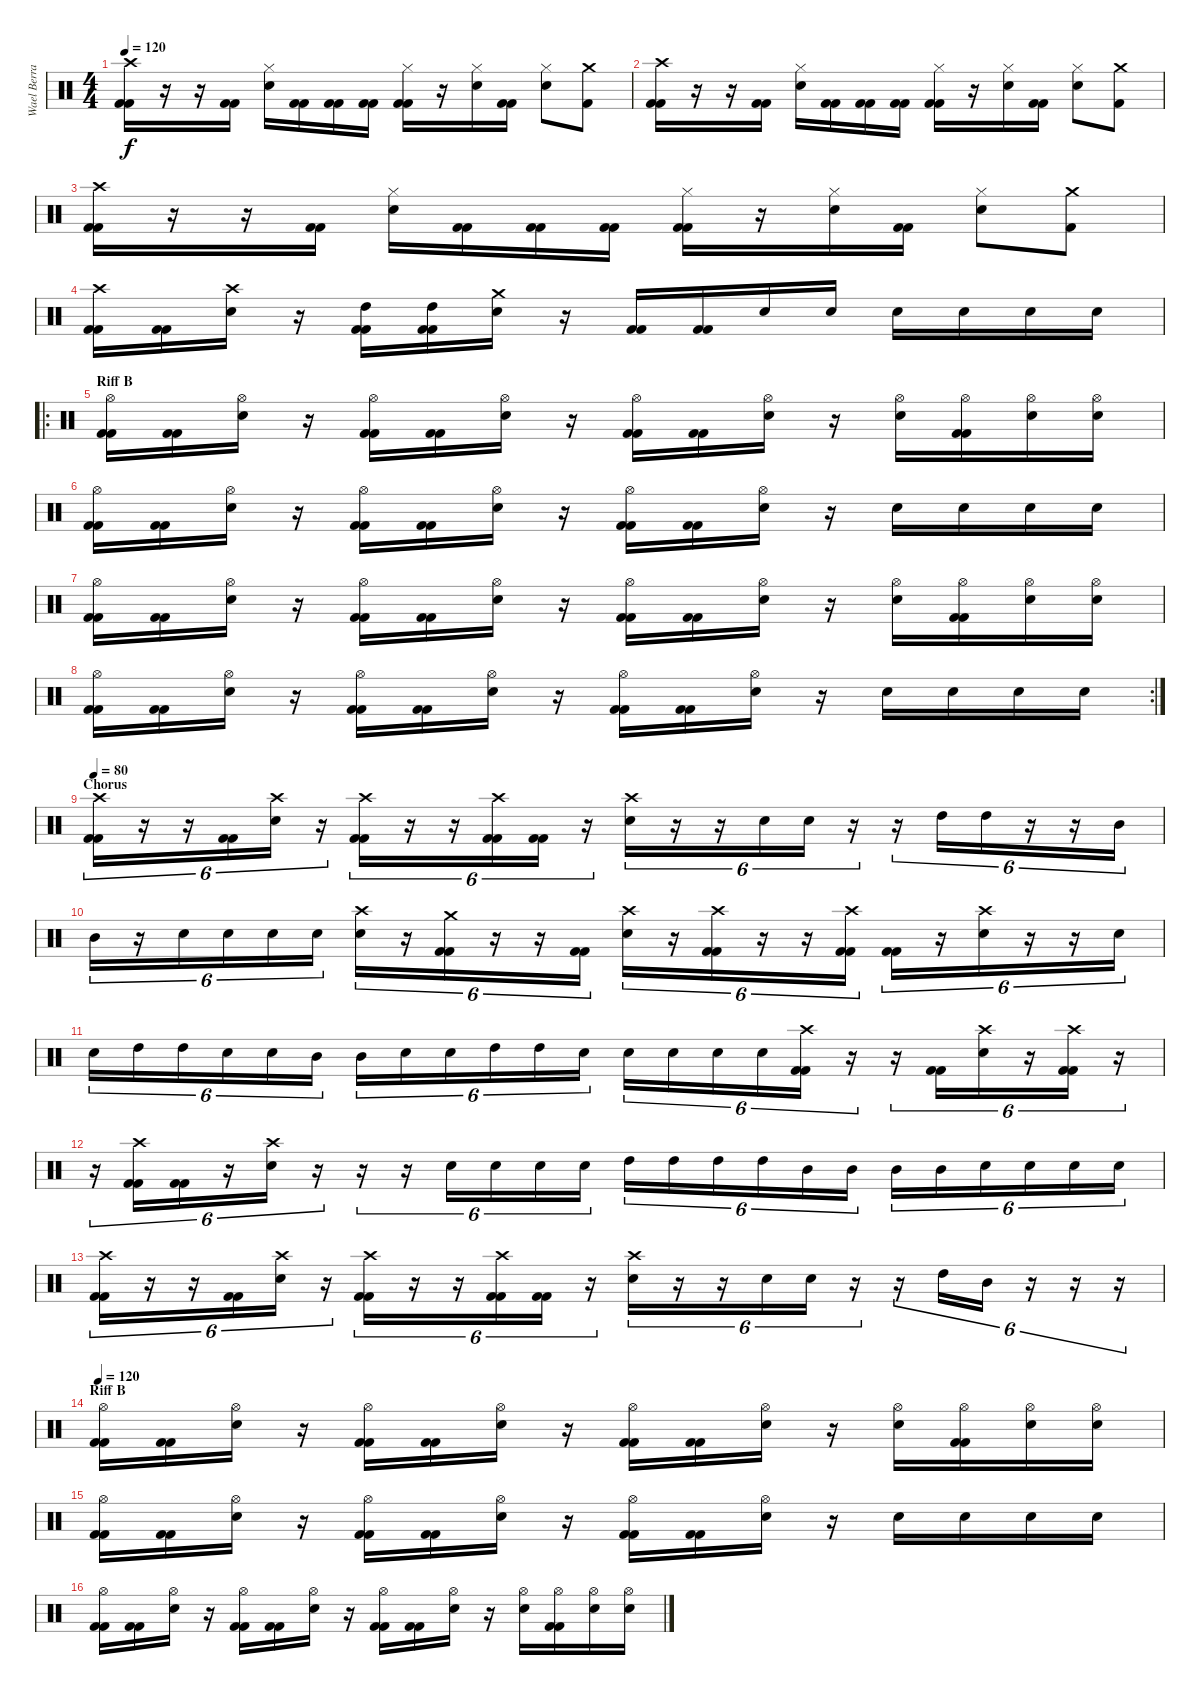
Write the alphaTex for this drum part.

\track ("Wael Berrais" "Wael Berra") {instrument percussion}
\staff {score}
\articulation defaults
\ts (4 4)
\tempo 120
\clef neutral
\ks c
("Crash high (hit)" "Kick (hit) 2" "Kick (hit) 2").16{dy f} r.16 r.16 ("Kick (hit) 2" "Kick (hit) 2").16 ("Hi-Hat (closed)" "Electric Snare (hit)").16 ("Kick (hit) 2" "Kick (hit) 2").16 ("Kick (hit) 2" "Kick (hit) 2").16 ("Kick (hit) 2" "Kick (hit) 2").16 ("Hi-Hat (closed)" "Kick (hit) 2" "Kick (hit) 2").16 r.16 ("Hi-Hat (closed)" "Electric Snare (hit)").16 ("Kick (hit) 2" "Kick (hit) 2").16 ("Hi-Hat (closed)" "Electric Snare (hit)").8 ("Crash medium (hit)" "Kick (hit) 2").8 |
("Crash high (hit)" "Kick (hit) 2" "Kick (hit) 2").16 r.16 r.16 ("Kick (hit) 2" "Kick (hit) 2").16 ("Hi-Hat (closed)" "Electric Snare (hit)").16 ("Kick (hit) 2" "Kick (hit) 2").16 ("Kick (hit) 2" "Kick (hit) 2").16 ("Kick (hit) 2" "Kick (hit) 2").16 ("Hi-Hat (closed)" "Kick (hit) 2" "Kick (hit) 2").16 r.16 ("Hi-Hat (closed)" "Electric Snare (hit)").16 ("Kick (hit) 2" "Kick (hit) 2").16 ("Hi-Hat (closed)" "Electric Snare (hit)").8 ("Crash medium (hit)" "Kick (hit) 2").8 |
("Crash high (hit)" "Kick (hit) 2" "Kick (hit) 2").16 r.16 r.16 ("Kick (hit) 2" "Kick (hit) 2").16 ("Hi-Hat (closed)" "Electric Snare (hit)").16 ("Kick (hit) 2" "Kick (hit) 2").16 ("Kick (hit) 2" "Kick (hit) 2").16 ("Kick (hit) 2" "Kick (hit) 2").16 ("Hi-Hat (closed)" "Kick (hit) 2" "Kick (hit) 2").16 r.16 ("Hi-Hat (closed)" "Electric Snare (hit)").16 ("Kick (hit) 2" "Kick (hit) 2").16 ("Hi-Hat (closed)" "Electric Snare (hit)").8 ("Crash medium (hit)" "Kick (hit) 2").8 |
("Crash high (hit)" "Kick (hit) 2" "Kick (hit) 2").16 ("Kick (hit) 2" "Kick (hit) 2").16 ("Electric Snare (hit)" "Crash high (hit)").16 r.16 ("High Tom (hit)" "Kick (hit) 2" "Kick (hit) 2").16 ("High Tom (hit)" "Kick (hit) 2" "Kick (hit) 2").16 ("Electric Snare (hit)" "Crash medium (hit)").16 r.16 ("Kick (hit) 2" "Kick (hit) 2").16 ("Kick (hit) 2" "Kick (hit) 2").16 "Electric Snare (hit)".16 "Electric Snare (hit)".16 "Electric Snare (hit)".16 "Electric Snare (hit)".16 "Electric Snare (hit)".16 "Electric Snare (hit)".16 |
\ro
\section ("" "Riff B")
("Hi-Hat (open)" "Kick (hit) 2" "Kick (hit) 2").16 ("Kick (hit) 2" "Kick (hit) 2").16 ("Hi-Hat (open)" "Electric Snare (hit)").16 r.16 ("Hi-Hat (open)" "Kick (hit) 2" "Kick (hit) 2").16 ("Kick (hit) 2" "Kick (hit) 2").16 ("Hi-Hat (open)" "Electric Snare (hit)").16 r.16 ("Hi-Hat (open)" "Kick (hit) 2" "Kick (hit) 2").16 ("Kick (hit) 2" "Kick (hit) 2").16 ("Hi-Hat (open)" "Electric Snare (hit)").16 r.16 ("Hi-Hat (open)" "Electric Snare (hit)").16 ("Hi-Hat (open)" "Kick (hit) 2" "Kick (hit) 2").16 ("Hi-Hat (open)" "Electric Snare (hit)").16 ("Hi-Hat (open)" "Electric Snare (hit)").16 |
("Hi-Hat (open)" "Kick (hit) 2" "Kick (hit) 2").16 ("Kick (hit) 2" "Kick (hit) 2").16 ("Hi-Hat (open)" "Electric Snare (hit)").16 r.16 ("Hi-Hat (open)" "Kick (hit) 2" "Kick (hit) 2").16 ("Kick (hit) 2" "Kick (hit) 2").16 ("Hi-Hat (open)" "Electric Snare (hit)").16 r.16 ("Hi-Hat (open)" "Kick (hit) 2" "Kick (hit) 2").16 ("Kick (hit) 2" "Kick (hit) 2").16 ("Hi-Hat (open)" "Electric Snare (hit)").16 r.16 "Electric Snare (hit)".16 "Electric Snare (hit)".16 "Electric Snare (hit)".16 "Electric Snare (hit)".16 |
("Hi-Hat (open)" "Kick (hit) 2" "Kick (hit) 2").16 ("Kick (hit) 2" "Kick (hit) 2").16 ("Hi-Hat (open)" "Electric Snare (hit)").16 r.16 ("Hi-Hat (open)" "Kick (hit) 2" "Kick (hit) 2").16 ("Kick (hit) 2" "Kick (hit) 2").16 ("Hi-Hat (open)" "Electric Snare (hit)").16 r.16 ("Hi-Hat (open)" "Kick (hit) 2" "Kick (hit) 2").16 ("Kick (hit) 2" "Kick (hit) 2").16 ("Hi-Hat (open)" "Electric Snare (hit)").16 r.16 ("Hi-Hat (open)" "Electric Snare (hit)").16 ("Hi-Hat (open)" "Kick (hit) 2" "Kick (hit) 2").16 ("Hi-Hat (open)" "Electric Snare (hit)").16 ("Hi-Hat (open)" "Electric Snare (hit)").16 |
\rc 2
("Hi-Hat (open)" "Kick (hit) 2" "Kick (hit) 2").16 ("Kick (hit) 2" "Kick (hit) 2").16 ("Hi-Hat (open)" "Electric Snare (hit)").16 r.16 ("Hi-Hat (open)" "Kick (hit) 2" "Kick (hit) 2").16 ("Kick (hit) 2" "Kick (hit) 2").16 ("Hi-Hat (open)" "Electric Snare (hit)").16 r.16 ("Hi-Hat (open)" "Kick (hit) 2" "Kick (hit) 2").16 ("Kick (hit) 2" "Kick (hit) 2").16 ("Hi-Hat (open)" "Electric Snare (hit)").16 r.16 "Electric Snare (hit)".16 "Electric Snare (hit)".16 "Electric Snare (hit)".16 "Electric Snare (hit)".16 |
\section ("" "Chorus")
\tempo 80
("Crash high (hit)" "Kick (hit) 2" "Kick (hit) 2").16{tu (6 4)} r.16{tu (6 4)} r.16{tu (6 4)} ("Kick (hit) 2" "Kick (hit) 2").16{tu (6 4)} ("Electric Snare (hit)" "Crash high (hit)").16{tu (6 4)} r.16{tu (6 4)} ("Crash high (hit)" "Kick (hit) 2" "Kick (hit) 2").16{tu (6 4)} r.16{tu (6 4)} r.16{tu (6 4)} ("Crash high (hit)" "Kick (hit) 2" "Kick (hit) 2").16{tu (6 4)} ("Kick (hit) 2" "Kick (hit) 2").16{tu (6 4)} r.16{tu (6 4)} ("Crash high (hit)" "Electric Snare (hit)").16{tu (6 4)} r.16{tu (6 4)} r.16{tu (6 4)} "Electric Snare (hit)".16{tu (6 4)} "Electric Snare (hit)".16{tu (6 4)} r.16{tu (6 4)} r.16{tu (6 4)} "High Tom (hit)".16{tu (6 4)} "High Tom (hit)".16{tu (6 4)} r.16{tu (6 4)} r.16{tu (6 4)} "Mid Tom (hit)".16{tu (6 4)} |
"Mid Tom (hit)".16{tu (6 4)} r.16{tu (6 4)} "Electric Snare (hit)".16{tu (6 4)} "Electric Snare (hit)".16{tu (6 4)} "Electric Snare (hit)".16{tu (6 4)} "Electric Snare (hit)".16{tu (6 4)} ("Electric Snare (hit)" "Crash high (hit)").16{tu (6 4)} r.16{tu (6 4)} ("Crash medium (hit)" "Kick (hit) 2" "Kick (hit) 2").16{tu (6 4)} r.16{tu (6 4)} r.16{tu (6 4)} ("Kick (hit) 2" "Kick (hit) 2").16{tu (6 4)} ("Electric Snare (hit)" "Crash high (hit)").16{tu (6 4)} r.16{tu (6 4)} ("Crash high (hit)" "Kick (hit) 2" "Kick (hit) 2").16{tu (6 4)} r.16{tu (6 4)} r.16{tu (6 4)} ("Crash high (hit)" "Kick (hit) 2" "Kick (hit) 2").16{tu (6 4)} ("Kick (hit) 2" "Kick (hit) 2").16{tu (6 4)} r.16{tu (6 4)} ("Electric Snare (hit)" "Crash high (hit)").16{tu (6 4)} r.16{tu (6 4)} r.16{tu (6 4)} "Electric Snare (hit)".16{tu (6 4)} |
"Electric Snare (hit)".16{tu (6 4)} "High Tom (hit)".16{tu (6 4)} "High Tom (hit)".16{tu (6 4)} "Electric Snare (hit)".16{tu (6 4)} "Electric Snare (hit)".16{tu (6 4)} "Mid Tom (hit)".16{tu (6 4)} "Mid Tom (hit)".16{tu (6 4)} "Electric Snare (hit)".16{tu (6 4)} "Electric Snare (hit)".16{tu (6 4)} "High Tom (hit)".16{tu (6 4)} "High Tom (hit)".16{tu (6 4)} "Electric Snare (hit)".16{tu (6 4)} "Electric Snare (hit)".16{tu (6 4)} "Electric Snare (hit)".16{tu (6 4)} "Electric Snare (hit)".16{tu (6 4)} "Electric Snare (hit)".16{tu (6 4)} ("Crash high (hit)" "Kick (hit) 2" "Kick (hit) 2").16{tu (6 4)} r.16{tu (6 4)} r.16{tu (6 4)} ("Kick (hit) 2" "Kick (hit) 2").16{tu (6 4)} ("Crash high (hit)" "Electric Snare (hit)").16{tu (6 4)} r.16{tu (6 4)} ("Crash high (hit)" "Kick (hit) 2" "Kick (hit) 2").16{tu (6 4)} r.16{tu (6 4)} |
r.16{tu (6 4)} ("Crash high (hit)" "Kick (hit) 2" "Kick (hit) 2").16{tu (6 4)} ("Kick (hit) 2" "Kick (hit) 2").16{tu (6 4)} r.16{tu (6 4)} ("Electric Snare (hit)" "Crash high (hit)").16{tu (6 4)} r.16{tu (6 4)} r.16{tu (6 4)} r.16{tu (6 4)} "Electric Snare (hit)".16{tu (6 4)} "Electric Snare (hit)".16{tu (6 4)} "Electric Snare (hit)".16{tu (6 4)} "Electric Snare (hit)".16{tu (6 4)} "High Tom (hit)".16{tu (6 4)} "High Tom (hit)".16{tu (6 4)} "High Tom (hit)".16{tu (6 4)} "High Tom (hit)".16{tu (6 4)} "Mid Tom (hit)".16{tu (6 4)} "Mid Tom (hit)".16{tu (6 4)} "Mid Tom (hit)".16{tu (6 4)} "Mid Tom (hit)".16{tu (6 4)} "Electric Snare (hit)".16{tu (6 4)} "Electric Snare (hit)".16{tu (6 4)} "Electric Snare (hit)".16{tu (6 4)} "Electric Snare (hit)".16{tu (6 4)} |
("Crash high (hit)" "Kick (hit) 2" "Kick (hit) 2").16{tu (6 4)} r.16{tu (6 4)} r.16{tu (6 4)} ("Kick (hit) 2" "Kick (hit) 2").16{tu (6 4)} ("Electric Snare (hit)" "Crash high (hit)").16{tu (6 4)} r.16{tu (6 4)} ("Crash high (hit)" "Kick (hit) 2" "Kick (hit) 2").16{tu (6 4)} r.16{tu (6 4)} r.16{tu (6 4)} ("Crash high (hit)" "Kick (hit) 2" "Kick (hit) 2").16{tu (6 4)} ("Kick (hit) 2" "Kick (hit) 2").16{tu (6 4)} r.16{tu (6 4)} ("Crash high (hit)" "Electric Snare (hit)").16{tu (6 4)} r.16{tu (6 4)} r.16{tu (6 4)} "Electric Snare (hit)".16{tu (6 4)} "Electric Snare (hit)".16{tu (6 4)} r.16{tu (6 4)} r.16{tu (6 4)} "High Tom (hit)".16{tu (6 4)} "Mid Tom (hit)".16{tu (6 4)} r.16{tu (6 4)} r.16{tu (6 4)} r.16{tu (6 4)} |
\section ("" "Riff B")
\tempo 120
("Hi-Hat (open)" "Kick (hit) 2" "Kick (hit) 2").16 ("Kick (hit) 2" "Kick (hit) 2").16 ("Hi-Hat (open)" "Electric Snare (hit)").16 r.16 ("Hi-Hat (open)" "Kick (hit) 2" "Kick (hit) 2").16 ("Kick (hit) 2" "Kick (hit) 2").16 ("Hi-Hat (open)" "Electric Snare (hit)").16 r.16 ("Hi-Hat (open)" "Kick (hit) 2" "Kick (hit) 2").16 ("Kick (hit) 2" "Kick (hit) 2").16 ("Hi-Hat (open)" "Electric Snare (hit)").16 r.16 ("Hi-Hat (open)" "Electric Snare (hit)").16 ("Hi-Hat (open)" "Kick (hit) 2" "Kick (hit) 2").16 ("Hi-Hat (open)" "Electric Snare (hit)").16 ("Hi-Hat (open)" "Electric Snare (hit)").16 |
("Hi-Hat (open)" "Kick (hit) 2" "Kick (hit) 2").16 ("Kick (hit) 2" "Kick (hit) 2").16 ("Hi-Hat (open)" "Electric Snare (hit)").16 r.16 ("Hi-Hat (open)" "Kick (hit) 2" "Kick (hit) 2").16 ("Kick (hit) 2" "Kick (hit) 2").16 ("Hi-Hat (open)" "Electric Snare (hit)").16 r.16 ("Hi-Hat (open)" "Kick (hit) 2" "Kick (hit) 2").16 ("Kick (hit) 2" "Kick (hit) 2").16 ("Hi-Hat (open)" "Electric Snare (hit)").16 r.16 "Electric Snare (hit)".16 "Electric Snare (hit)".16 "Electric Snare (hit)".16 "Electric Snare (hit)".16 |
("Hi-Hat (open)" "Kick (hit) 2" "Kick (hit) 2").16 ("Kick (hit) 2" "Kick (hit) 2").16 ("Hi-Hat (open)" "Electric Snare (hit)").16 r.16 ("Hi-Hat (open)" "Kick (hit) 2" "Kick (hit) 2").16 ("Kick (hit) 2" "Kick (hit) 2").16 ("Hi-Hat (open)" "Electric Snare (hit)").16 r.16 ("Hi-Hat (open)" "Kick (hit) 2" "Kick (hit) 2").16 ("Kick (hit) 2" "Kick (hit) 2").16 ("Hi-Hat (open)" "Electric Snare (hit)").16 r.16 ("Hi-Hat (open)" "Electric Snare (hit)").16 ("Hi-Hat (open)" "Kick (hit) 2" "Kick (hit) 2").16 ("Hi-Hat (open)" "Electric Snare (hit)").16 ("Hi-Hat (open)" "Electric Snare (hit)").16
